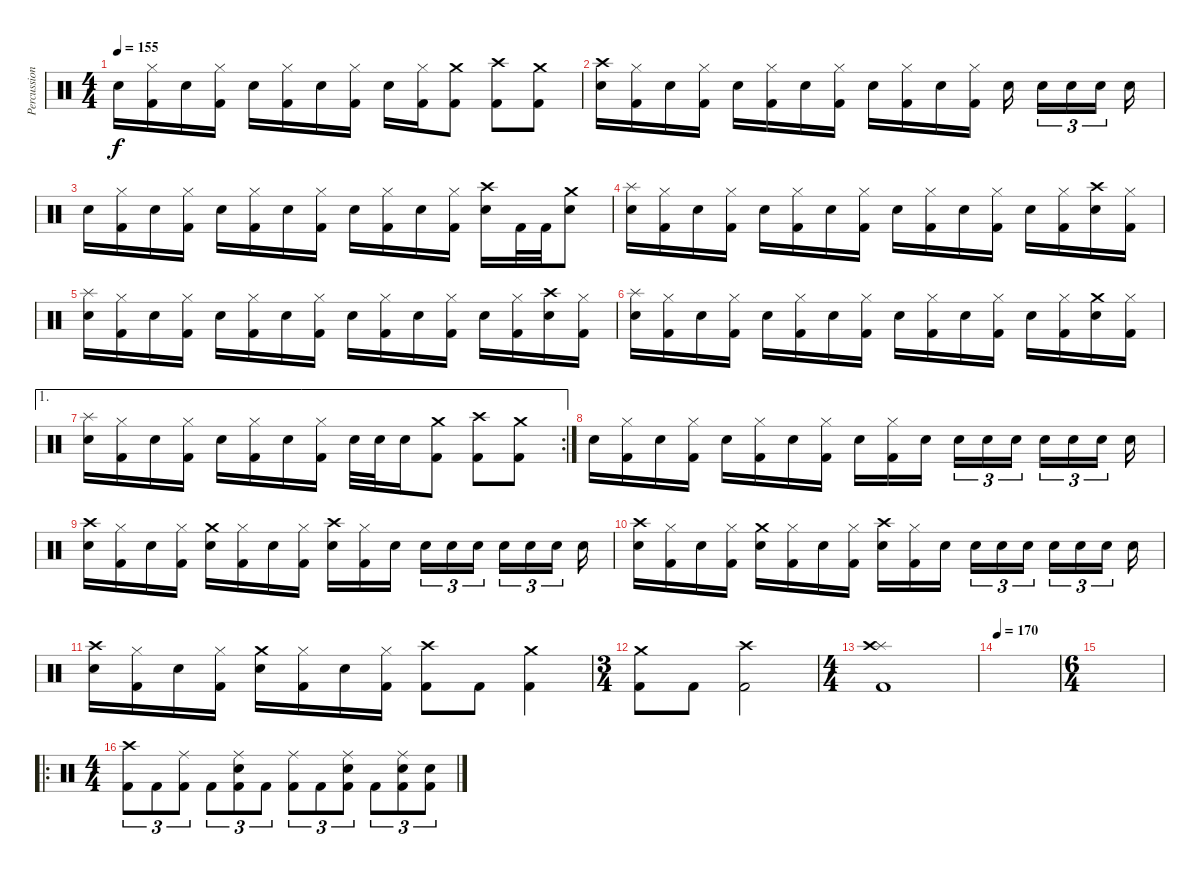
\track ("Percussion" "Percussion") {instrument percussion}
\staff {score}
\articulation defaults
\ts (4 4)
\tempo 155
\clef neutral
\ks c "Snare (hit) 2".16{dy f}
("Hi-Hat (closed)" "Kick (hit) 2").16 "Snare (hit) 2".16 ("Hi-Hat (closed)" "Kick (hit) 2").16 "Snare (hit) 2".16 ("Hi-Hat (closed)" "Kick (hit) 2").16 "Snare (hit) 2".16 ("Hi-Hat (closed)" "Kick (hit) 2").16 "Snare (hit) 2".16 ("Hi-Hat (closed)" "Kick (hit) 2").16 ("Crash medium (hit)" "Kick (hit) 2").8 ("Crash high (hit)" "Kick (hit) 2").8 ("Crash medium (hit)" "Kick (hit) 2").8 |
("Crash high (hit)" "Snare (hit) 2").16 ("Hi-Hat (closed)" "Kick (hit) 2").16 "Snare (hit) 2".16 ("Hi-Hat (closed)" "Kick (hit) 2").16 "Snare (hit) 2".16 ("Hi-Hat (closed)" "Kick (hit) 2").16 "Snare (hit) 2".16 ("Hi-Hat (closed)" "Kick (hit) 2").16 "Snare (hit) 2".16 ("Hi-Hat (closed)" "Kick (hit) 2").16 "Snare (hit) 2".16 ("Hi-Hat (closed)" "Kick (hit) 2").16 "Snare (hit) 2".16 "Snare (hit) 2".16{tu (3 2)} "Snare (hit) 2".16{tu (3 2)} "Snare (hit) 2".16{tu (3 2)} "Snare (hit) 2".16 |
"Snare (hit) 2".16 ("Hi-Hat (closed)" "Kick (hit) 2").16 "Snare (hit) 2".16 ("Hi-Hat (closed)" "Kick (hit) 2").16 "Snare (hit) 2".16 ("Hi-Hat (closed)" "Kick (hit) 2").16 "Snare (hit) 2".16 ("Hi-Hat (closed)" "Kick (hit) 2").16 "Snare (hit) 2".16 ("Hi-Hat (closed)" "Kick (hit) 2").16 "Snare (hit) 2".16 ("Hi-Hat (closed)" "Kick (hit) 2").16 ("Crash high (hit)" "Snare (hit) 2").16 "Kick (hit) 2".32 "Kick (hit) 2".32 ("Crash medium (hit)" "Snare (hit) 2").8 |
("Splash (hit)" "Snare (hit) 2").16 ("Hi-Hat (closed)" "Kick (hit) 2").16 "Snare (hit) 2".16 ("Hi-Hat (closed)" "Kick (hit) 2").16 "Snare (hit) 2".16 ("Hi-Hat (closed)" "Kick (hit) 2").16 "Snare (hit) 2".16 ("Hi-Hat (closed)" "Kick (hit) 2").16 "Snare (hit) 2".16 ("Hi-Hat (closed)" "Kick (hit) 2").16 "Snare (hit) 2".16 ("Hi-Hat (closed)" "Kick (hit) 2").16 "Snare (hit) 2".16 ("Hi-Hat (closed)" "Kick (hit) 2").16 ("Crash high (hit)" "Snare (hit) 2").16 ("Hi-Hat (closed)" "Kick (hit) 2").16 |
("Splash (hit)" "Snare (hit) 2").16 ("Hi-Hat (closed)" "Kick (hit) 2").16 "Snare (hit) 2".16 ("Hi-Hat (closed)" "Kick (hit) 2").16 "Snare (hit) 2".16 ("Hi-Hat (closed)" "Kick (hit) 2").16 "Snare (hit) 2".16 ("Hi-Hat (closed)" "Kick (hit) 2").16 "Snare (hit) 2".16 ("Hi-Hat (closed)" "Kick (hit) 2").16 "Snare (hit) 2".16 ("Hi-Hat (closed)" "Kick (hit) 2").16 "Snare (hit) 2".16 ("Hi-Hat (closed)" "Kick (hit) 2").16 ("Crash high (hit)" "Snare (hit) 2").16 ("Hi-Hat (closed)" "Kick (hit) 2").16 |
("Splash (hit)" "Snare (hit) 2").16 ("Hi-Hat (closed)" "Kick (hit) 2").16 "Snare (hit) 2".16 ("Hi-Hat (closed)" "Kick (hit) 2").16 "Snare (hit) 2".16 ("Hi-Hat (closed)" "Kick (hit) 2").16 "Snare (hit) 2".16 ("Hi-Hat (closed)" "Kick (hit) 2").16 "Snare (hit) 2".16 ("Hi-Hat (closed)" "Kick (hit) 2").16 "Snare (hit) 2".16 ("Hi-Hat (closed)" "Kick (hit) 2").16 "Snare (hit) 2".16 ("Hi-Hat (closed)" "Kick (hit) 2").16 ("Crash medium (hit)" "Snare (hit) 2").16 ("Hi-Hat (closed)" "Kick (hit) 2").16 |
\ae 1
\rc 2
("Splash (hit)" "Snare (hit) 2").16 ("Hi-Hat (closed)" "Kick (hit) 2").16 "Snare (hit) 2".16 ("Hi-Hat (closed)" "Kick (hit) 2").16 "Snare (hit) 2".16 ("Hi-Hat (closed)" "Kick (hit) 2").16 "Snare (hit) 2".16 ("Hi-Hat (closed)" "Kick (hit) 2").16 "Snare (hit) 2".32 "Snare (hit) 2".32 "Snare (hit) 2".16 ("Crash medium (hit)" "Kick (hit) 2").8 ("Crash high (hit)" "Kick (hit) 2").8 ("Crash medium (hit)" "Kick (hit) 2").8 |
"Snare (hit) 2".16 ("Hi-Hat (closed)" "Kick (hit) 2").16 "Snare (hit) 2".16 ("Hi-Hat (closed)" "Kick (hit) 2").16 "Snare (hit) 2".16 ("Hi-Hat (closed)" "Kick (hit) 2").16 "Snare (hit) 2".16 ("Hi-Hat (closed)" "Kick (hit) 2").16 "Snare (hit) 2".16 ("Hi-Hat (closed)" "Kick (hit) 2").16 "Snare (hit) 2".16 "Snare (hit) 2".16{tu (3 2)} "Snare (hit) 2".16{tu (3 2)} "Snare (hit) 2".16{tu (3 2)} "Snare (hit) 2".16{tu (3 2)} "Snare (hit) 2".16{tu (3 2)} "Snare (hit) 2".16{tu (3 2)} "Snare (hit) 2".16 |
("Crash high (hit)" "Snare (hit) 2").16 ("Hi-Hat (closed)" "Kick (hit) 2").16 "Snare (hit) 2".16 ("Hi-Hat (closed)" "Kick (hit) 2").16 ("Crash medium (hit)" "Snare (hit) 2").16 ("Hi-Hat (closed)" "Kick (hit) 2").16 "Snare (hit) 2".16 ("Hi-Hat (closed)" "Kick (hit) 2").16 ("Crash high (hit)" "Snare (hit) 2").16 ("Hi-Hat (closed)" "Kick (hit) 2").16 "Snare (hit) 2".16 "Snare (hit) 2".16{tu (3 2)} "Snare (hit) 2".16{tu (3 2)} "Snare (hit) 2".16{tu (3 2)} "Snare (hit) 2".16{tu (3 2)} "Snare (hit) 2".16{tu (3 2)} "Snare (hit) 2".16{tu (3 2)} "Snare (hit) 2".16 |
("Crash high (hit)" "Snare (hit) 2").16 ("Hi-Hat (closed)" "Kick (hit) 2").16 "Snare (hit) 2".16 ("Hi-Hat (closed)" "Kick (hit) 2").16 ("Crash medium (hit)" "Snare (hit) 2").16 ("Hi-Hat (closed)" "Kick (hit) 2").16 "Snare (hit) 2".16 ("Hi-Hat (closed)" "Kick (hit) 2").16 ("Crash high (hit)" "Snare (hit) 2").16 ("Hi-Hat (closed)" "Kick (hit) 2").16 "Snare (hit) 2".16 "Snare (hit) 2".16{tu (3 2)} "Snare (hit) 2".16{tu (3 2)} "Snare (hit) 2".16{tu (3 2)} "Snare (hit) 2".16{tu (3 2)} "Snare (hit) 2".16{tu (3 2)} "Snare (hit) 2".16{tu (3 2)} "Snare (hit) 2".16 |
("Crash high (hit)" "Snare (hit) 2").16 ("Hi-Hat (closed)" "Kick (hit) 2").16 "Snare (hit) 2".16 ("Hi-Hat (closed)" "Kick (hit) 2").16 ("Crash medium (hit)" "Snare (hit) 2").16 ("Hi-Hat (closed)" "Kick (hit) 2").16 "Snare (hit) 2".16 ("Hi-Hat (closed)" "Kick (hit) 2").16 ("Crash high (hit)" "Kick (hit) 2").8 "Kick (hit) 2".8 ("Crash medium (hit)" "Kick (hit) 2").4 |
\ts (3 4)
("Crash medium (hit)" "Kick (hit) 2").8 "Kick (hit) 2".8 ("Crash high (hit)" "Kick (hit) 2").2 |
\ts (4 4)
("Splash (hit)" "Crash high (hit)" "Kick (hit) 2").1 |
\tempo 170
|
\ts (6 4)
|
\ro
\ts (4 4)
("Crash high (hit)" "Kick (hit) 2").8{tu (3 2)} "Kick (hit) 2".8{tu (3 2)} ("Ride (middle)" "Kick (hit) 2").8{tu (3 2)} "Kick (hit) 2".8{tu (3 2)} ("Ride (middle)" "Snare (hit) 2" "Kick (hit) 2").8{tu (3 2)} "Kick (hit) 2".8{tu (3 2)} ("Ride (middle)" "Kick (hit) 2").8{tu (3 2)} "Kick (hit) 2".8{tu (3 2)} ("Ride (middle)" "Snare (hit) 2" "Kick (hit) 2").8{tu (3 2)} "Kick (hit) 2".8{tu (3 2)} ("Ride (middle)" "Snare (hit) 2" "Kick (hit) 2").8{tu (3 2)} ("Snare (hit) 2" "Kick (hit) 2").8{tu (3 2)}
